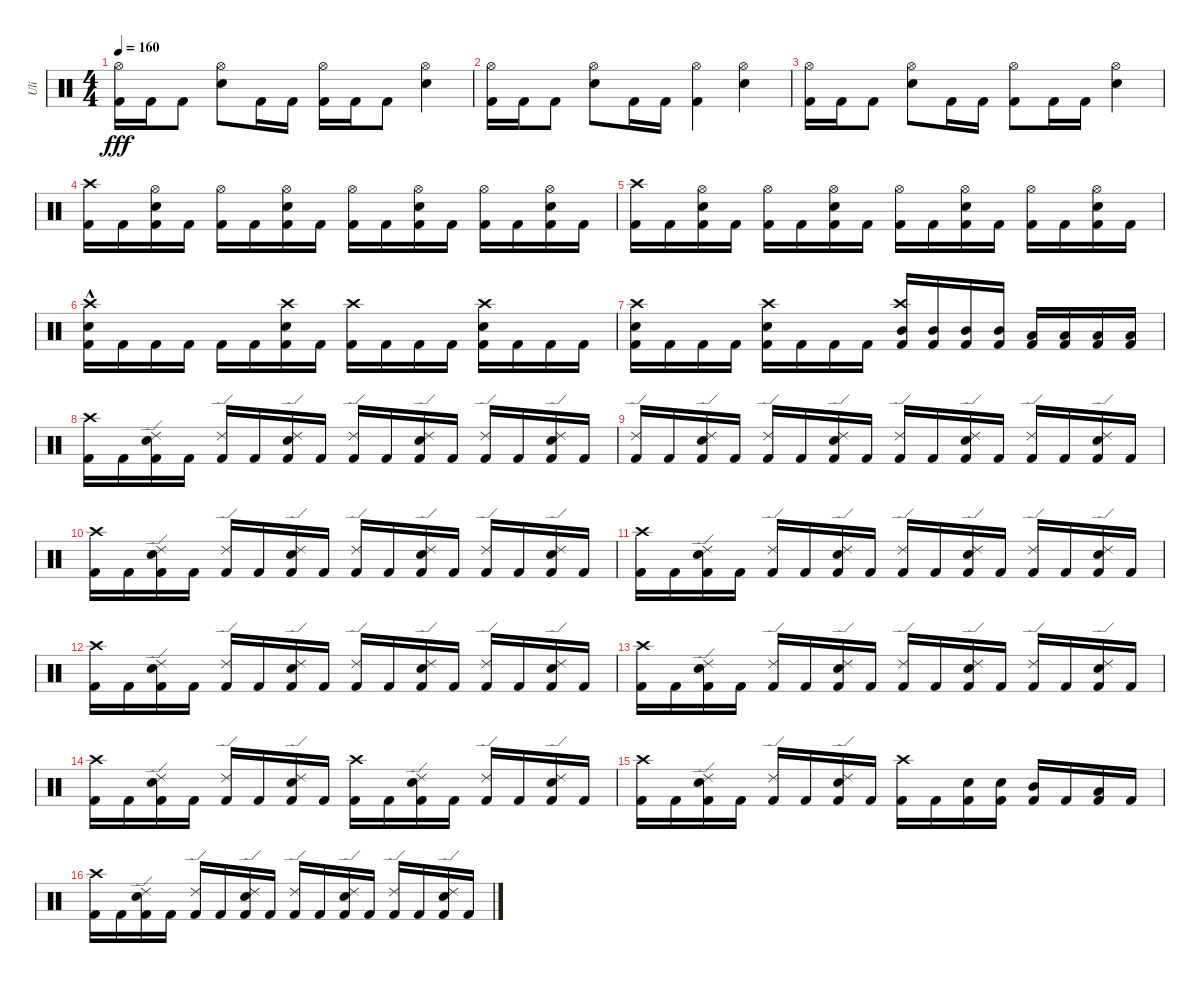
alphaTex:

\track ("Uli" "Uli") {instrument percussion}
\staff {score}
\articulation defaults
\ts (4 4)
\tempo 160
\clef neutral
\ks c
("Kick (hit) 2" "Hi-Hat (open)").16{dy fff} "Kick (hit) 2".16 "Kick (hit) 2".8 ("Electric Snare (hit)" "Hi-Hat (open)").8 "Kick (hit) 2".16 "Kick (hit) 2".16 ("Hi-Hat (open)" "Kick (hit) 2").16 "Kick (hit) 2".16 "Kick (hit) 2".8 ("Electric Snare (hit)" "Hi-Hat (open)").4 |
("Kick (hit) 2" "Hi-Hat (open)").16 "Kick (hit) 2".16 "Kick (hit) 2".8 ("Electric Snare (hit)" "Hi-Hat (open)").8 "Kick (hit) 2".16 "Kick (hit) 2".16 ("Hi-Hat (open)" "Kick (hit) 2").4 ("Electric Snare (hit)" "Hi-Hat (open)").4 |
("Kick (hit) 2" "Hi-Hat (open)").16 "Kick (hit) 2".16 "Kick (hit) 2".8 ("Electric Snare (hit)" "Hi-Hat (open)").8 "Kick (hit) 2".16 "Kick (hit) 2".16 ("Hi-Hat (open)" "Kick (hit) 2").8 "Kick (hit) 2".16 "Kick (hit) 2".16 ("Electric Snare (hit)" "Hi-Hat (open)").4 |
("Kick (hit) 2" "Crash high (hit)").16 "Kick (hit) 2".16 ("Kick (hit) 2" "Hi-Hat (open)" "Electric Snare (hit)").16 "Kick (hit) 2".16 ("Kick (hit) 2" "Hi-Hat (open)").16 "Kick (hit) 2".16 ("Kick (hit) 2" "Hi-Hat (open)" "Electric Snare (hit)").16 "Kick (hit) 2".16 ("Kick (hit) 2" "Hi-Hat (open)").16 "Kick (hit) 2".16 ("Kick (hit) 2" "Hi-Hat (open)" "Electric Snare (hit)").16 "Kick (hit) 2".16 ("Kick (hit) 2" "Hi-Hat (open)").16 "Kick (hit) 2".16 ("Kick (hit) 2" "Hi-Hat (open)" "Electric Snare (hit)").16 "Kick (hit) 2".16 |
("Kick (hit) 2" "Crash high (hit)").16 "Kick (hit) 2".16 ("Kick (hit) 2" "Hi-Hat (open)" "Electric Snare (hit)").16 "Kick (hit) 2".16 ("Kick (hit) 2" "Hi-Hat (open)").16 "Kick (hit) 2".16 ("Kick (hit) 2" "Hi-Hat (open)" "Electric Snare (hit)").16 "Kick (hit) 2".16 ("Kick (hit) 2" "Hi-Hat (open)").16 "Kick (hit) 2".16 ("Kick (hit) 2" "Hi-Hat (open)" "Electric Snare (hit)").16 "Kick (hit) 2".16 ("Kick (hit) 2" "Hi-Hat (open)").16 "Kick (hit) 2".16 ("Kick (hit) 2" "Hi-Hat (open)" "Electric Snare (hit)").16 "Kick (hit) 2".16 |
("Kick (hit) 2" "Electric Snare (hit)"{hac} "Crash high (hit)"{hac}).16 "Kick (hit) 2".16 "Kick (hit) 2".16 "Kick (hit) 2".16 "Kick (hit) 2".16 "Kick (hit) 2".16 ("Kick (hit) 2" "Electric Snare (hit)" "Crash high (hit)").16 "Kick (hit) 2".16 ("Kick (hit) 2" "Crash high (hit)").16 "Kick (hit) 2".16 "Kick (hit) 2".16 "Kick (hit) 2".16 ("Kick (hit) 2" "Electric Snare (hit)" "Crash high (hit)").16 "Kick (hit) 2".16 "Kick (hit) 2".16 "Kick (hit) 2".16 |
("Kick (hit) 2" "Electric Snare (hit)" "Crash high (hit)").16 "Kick (hit) 2".16 "Kick (hit) 2".16 "Kick (hit) 2".16 ("Kick (hit) 2" "Electric Snare (hit)" "Crash high (hit)").16 "Kick (hit) 2".16 "Kick (hit) 2".16 "Kick (hit) 2".16 ("Kick (hit) 2" "Mid Tom (hit)" "Crash high (hit)").16 ("Kick (hit) 2" "Mid Tom (hit)").16 ("Kick (hit) 2" "Mid Tom (hit)").16 ("Kick (hit) 2" "Mid Tom (hit)").16 ("Kick (hit) 2" "Low Tom (hit)").16 ("Kick (hit) 2" "Low Tom (hit)").16 ("Kick (hit) 2" "Low Tom (hit)").16 ("Kick (hit) 2" "Low Tom (hit)").16 |
("Kick (hit) 2" "Crash high (hit)").16 "Kick (hit) 2".16 ("Kick (hit) 2" "Electric Snare (hit)" "Ride (edge) 2").16 "Kick (hit) 2".16 ("Kick (hit) 2" "Ride (edge) 2").16 "Kick (hit) 2".16 ("Kick (hit) 2" "Electric Snare (hit)" "Ride (edge) 2").16 "Kick (hit) 2".16 ("Kick (hit) 2" "Ride (edge) 2").16 "Kick (hit) 2".16 ("Kick (hit) 2" "Electric Snare (hit)" "Ride (edge) 2").16 "Kick (hit) 2".16 ("Kick (hit) 2" "Ride (edge) 2").16 "Kick (hit) 2".16 ("Kick (hit) 2" "Electric Snare (hit)" "Ride (edge) 2").16 "Kick (hit) 2".16 |
("Kick (hit) 2" "Ride (edge) 2").16 "Kick (hit) 2".16 ("Kick (hit) 2" "Electric Snare (hit)" "Ride (edge) 2").16 "Kick (hit) 2".16 ("Kick (hit) 2" "Ride (edge) 2").16 "Kick (hit) 2".16 ("Kick (hit) 2" "Electric Snare (hit)" "Ride (edge) 2").16 "Kick (hit) 2".16 ("Kick (hit) 2" "Ride (edge) 2").16 "Kick (hit) 2".16 ("Kick (hit) 2" "Electric Snare (hit)" "Ride (edge) 2").16 "Kick (hit) 2".16 ("Kick (hit) 2" "Ride (edge) 2").16 "Kick (hit) 2".16 ("Kick (hit) 2" "Electric Snare (hit)" "Ride (edge) 2").16 "Kick (hit) 2".16 |
("Kick (hit) 2" "Crash high (hit)").16 "Kick (hit) 2".16 ("Kick (hit) 2" "Electric Snare (hit)" "Ride (edge) 2").16 "Kick (hit) 2".16 ("Kick (hit) 2" "Ride (edge) 2").16 "Kick (hit) 2".16 ("Kick (hit) 2" "Electric Snare (hit)" "Ride (edge) 2").16 "Kick (hit) 2".16 ("Kick (hit) 2" "Ride (edge) 2").16 "Kick (hit) 2".16 ("Kick (hit) 2" "Electric Snare (hit)" "Ride (edge) 2").16 "Kick (hit) 2".16 ("Kick (hit) 2" "Ride (edge) 2").16 "Kick (hit) 2".16 ("Kick (hit) 2" "Electric Snare (hit)" "Ride (edge) 2").16 "Kick (hit) 2".16 |
("Kick (hit) 2" "Crash high (hit)").16 "Kick (hit) 2".16 ("Kick (hit) 2" "Electric Snare (hit)" "Ride (edge) 2").16 "Kick (hit) 2".16 ("Kick (hit) 2" "Ride (edge) 2").16 "Kick (hit) 2".16 ("Kick (hit) 2" "Electric Snare (hit)" "Ride (edge) 2").16 "Kick (hit) 2".16 ("Kick (hit) 2" "Ride (edge) 2").16 "Kick (hit) 2".16 ("Kick (hit) 2" "Electric Snare (hit)" "Ride (edge) 2").16 "Kick (hit) 2".16 ("Kick (hit) 2" "Ride (edge) 2").16 "Kick (hit) 2".16 ("Kick (hit) 2" "Electric Snare (hit)" "Ride (edge) 2").16 "Kick (hit) 2".16 |
("Kick (hit) 2" "Crash high (hit)").16 "Kick (hit) 2".16 ("Kick (hit) 2" "Electric Snare (hit)" "Ride (edge) 2").16 "Kick (hit) 2".16 ("Kick (hit) 2" "Ride (edge) 2").16 "Kick (hit) 2".16 ("Kick (hit) 2" "Electric Snare (hit)" "Ride (edge) 2").16 "Kick (hit) 2".16 ("Kick (hit) 2" "Ride (edge) 2").16 "Kick (hit) 2".16 ("Kick (hit) 2" "Electric Snare (hit)" "Ride (edge) 2").16 "Kick (hit) 2".16 ("Kick (hit) 2" "Ride (edge) 2").16 "Kick (hit) 2".16 ("Kick (hit) 2" "Electric Snare (hit)" "Ride (edge) 2").16 "Kick (hit) 2".16 |
("Kick (hit) 2" "Crash high (hit)").16 "Kick (hit) 2".16 ("Kick (hit) 2" "Electric Snare (hit)" "Ride (edge) 2").16 "Kick (hit) 2".16 ("Kick (hit) 2" "Ride (edge) 2").16 "Kick (hit) 2".16 ("Kick (hit) 2" "Electric Snare (hit)" "Ride (edge) 2").16 "Kick (hit) 2".16 ("Kick (hit) 2" "Ride (edge) 2").16 "Kick (hit) 2".16 ("Kick (hit) 2" "Electric Snare (hit)" "Ride (edge) 2").16 "Kick (hit) 2".16 ("Kick (hit) 2" "Ride (edge) 2").16 "Kick (hit) 2".16 ("Kick (hit) 2" "Electric Snare (hit)" "Ride (edge) 2").16 "Kick (hit) 2".16 |
("Kick (hit) 2" "Crash high (hit)").16 "Kick (hit) 2".16 ("Kick (hit) 2" "Electric Snare (hit)" "Ride (edge) 2").16 "Kick (hit) 2".16 ("Kick (hit) 2" "Ride (edge) 2").16 "Kick (hit) 2".16 ("Kick (hit) 2" "Electric Snare (hit)" "Ride (edge) 2").16 "Kick (hit) 2".16 ("Kick (hit) 2" "Crash high (hit)").16 "Kick (hit) 2".16 ("Kick (hit) 2" "Electric Snare (hit)" "Ride (edge) 2").16 "Kick (hit) 2".16 ("Kick (hit) 2" "Ride (edge) 2").16 "Kick (hit) 2".16 ("Kick (hit) 2" "Electric Snare (hit)" "Ride (edge) 2").16 "Kick (hit) 2".16 |
("Kick (hit) 2" "Crash high (hit)").16 "Kick (hit) 2".16 ("Kick (hit) 2" "Electric Snare (hit)" "Ride (edge) 2").16 "Kick (hit) 2".16 ("Kick (hit) 2" "Ride (edge) 2").16 "Kick (hit) 2".16 ("Kick (hit) 2" "Electric Snare (hit)" "Ride (edge) 2").16 "Kick (hit) 2".16 ("Kick (hit) 2" "Crash high (hit)").16 "Kick (hit) 2".16 ("Kick (hit) 2" "Electric Snare (hit)").16 ("Kick (hit) 2" "Electric Snare (hit)").16 ("Kick (hit) 2" "Mid Tom (hit)").16 "Kick (hit) 2".16 ("Kick (hit) 2" "Low Tom (hit)").16 "Kick (hit) 2".16 |
("Kick (hit) 2" "Crash high (hit)").16 "Kick (hit) 2".16 ("Kick (hit) 2" "Electric Snare (hit)" "Ride (edge) 2").16 "Kick (hit) 2".16 ("Kick (hit) 2" "Ride (edge) 2").16 "Kick (hit) 2".16 ("Kick (hit) 2" "Electric Snare (hit)" "Ride (edge) 2").16 "Kick (hit) 2".16 ("Kick (hit) 2" "Ride (edge) 2").16 "Kick (hit) 2".16 ("Kick (hit) 2" "Electric Snare (hit)" "Ride (edge) 2").16 "Kick (hit) 2".16 ("Kick (hit) 2" "Ride (edge) 2").16 "Kick (hit) 2".16 ("Kick (hit) 2" "Electric Snare (hit)" "Ride (edge) 2").16 "Kick (hit) 2".16
